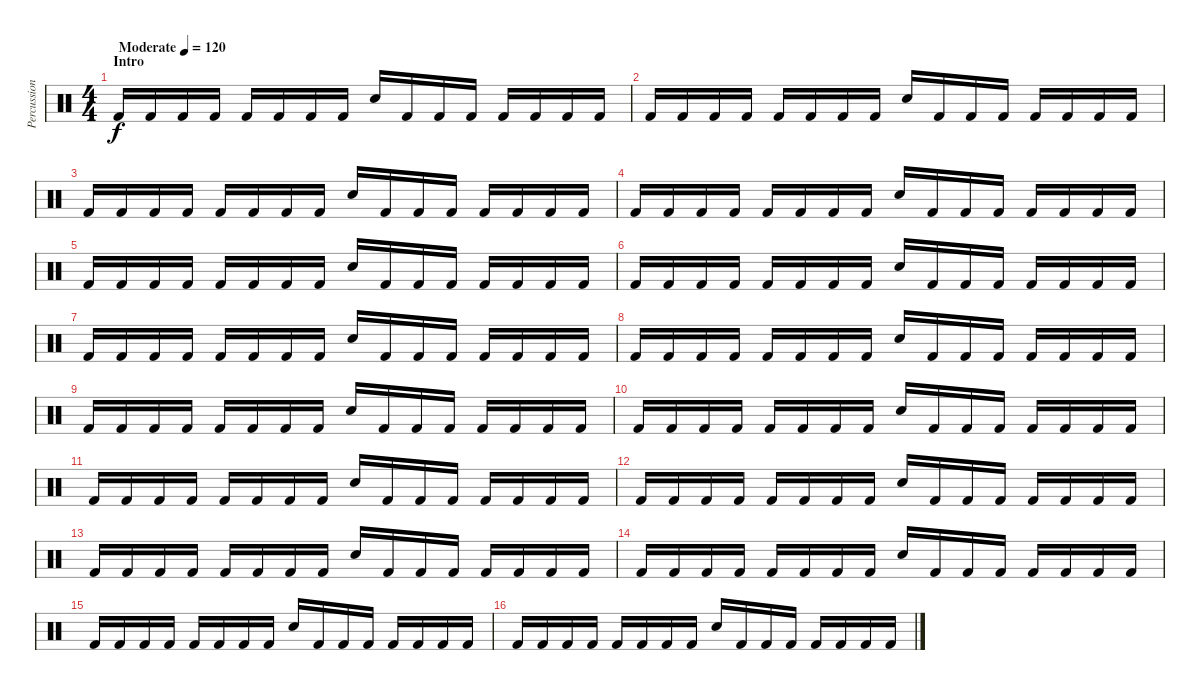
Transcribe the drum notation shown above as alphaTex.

\track ("Percussion" "Percussion") {instrument percussion}
\staff {score}
\articulation defaults
\ts (4 4)
\section ("" "Intro")
\tempo (120 "Moderate")
\clef neutral
\ks c "Kick (hit) 2".16{dy f} "Kick (hit) 2".16 "Kick (hit) 2".16 "Kick (hit) 2".16 "Kick (hit) 2".16 "Kick (hit) 2".16 "Kick (hit) 2".16 "Kick (hit) 2".16 "Snare (hit) 2".16 "Kick (hit) 2".16 "Kick (hit) 2".16 "Kick (hit) 2".16 "Kick (hit) 2".16 "Kick (hit) 2".16 "Kick (hit) 2".16 "Kick (hit) 2".16
|
"Kick (hit) 2".16 "Kick (hit) 2".16 "Kick (hit) 2".16 "Kick (hit) 2".16 "Kick (hit) 2".16 "Kick (hit) 2".16 "Kick (hit) 2".16 "Kick (hit) 2".16 "Snare (hit) 2".16 "Kick (hit) 2".16 "Kick (hit) 2".16 "Kick (hit) 2".16 "Kick (hit) 2".16 "Kick (hit) 2".16 "Kick (hit) 2".16 "Kick (hit) 2".16 |
"Kick (hit) 2".16 "Kick (hit) 2".16 "Kick (hit) 2".16 "Kick (hit) 2".16 "Kick (hit) 2".16 "Kick (hit) 2".16 "Kick (hit) 2".16 "Kick (hit) 2".16 "Snare (hit) 2".16 "Kick (hit) 2".16 "Kick (hit) 2".16 "Kick (hit) 2".16 "Kick (hit) 2".16 "Kick (hit) 2".16 "Kick (hit) 2".16 "Kick (hit) 2".16 |
"Kick (hit) 2".16 "Kick (hit) 2".16 "Kick (hit) 2".16 "Kick (hit) 2".16 "Kick (hit) 2".16 "Kick (hit) 2".16 "Kick (hit) 2".16 "Kick (hit) 2".16 "Snare (hit) 2".16 "Kick (hit) 2".16 "Kick (hit) 2".16 "Kick (hit) 2".16 "Kick (hit) 2".16 "Kick (hit) 2".16 "Kick (hit) 2".16 "Kick (hit) 2".16 |
"Kick (hit) 2".16 "Kick (hit) 2".16 "Kick (hit) 2".16 "Kick (hit) 2".16 "Kick (hit) 2".16 "Kick (hit) 2".16 "Kick (hit) 2".16 "Kick (hit) 2".16 "Snare (hit) 2".16 "Kick (hit) 2".16 "Kick (hit) 2".16 "Kick (hit) 2".16 "Kick (hit) 2".16 "Kick (hit) 2".16 "Kick (hit) 2".16 "Kick (hit) 2".16 |
"Kick (hit) 2".16 "Kick (hit) 2".16 "Kick (hit) 2".16 "Kick (hit) 2".16 "Kick (hit) 2".16 "Kick (hit) 2".16 "Kick (hit) 2".16 "Kick (hit) 2".16 "Snare (hit) 2".16 "Kick (hit) 2".16 "Kick (hit) 2".16 "Kick (hit) 2".16 "Kick (hit) 2".16 "Kick (hit) 2".16 "Kick (hit) 2".16 "Kick (hit) 2".16 |
"Kick (hit) 2".16 "Kick (hit) 2".16 "Kick (hit) 2".16 "Kick (hit) 2".16 "Kick (hit) 2".16 "Kick (hit) 2".16 "Kick (hit) 2".16 "Kick (hit) 2".16 "Snare (hit) 2".16 "Kick (hit) 2".16 "Kick (hit) 2".16 "Kick (hit) 2".16 "Kick (hit) 2".16 "Kick (hit) 2".16 "Kick (hit) 2".16 "Kick (hit) 2".16 |
"Kick (hit) 2".16 "Kick (hit) 2".16 "Kick (hit) 2".16 "Kick (hit) 2".16 "Kick (hit) 2".16 "Kick (hit) 2".16 "Kick (hit) 2".16 "Kick (hit) 2".16 "Snare (hit) 2".16 "Kick (hit) 2".16 "Kick (hit) 2".16 "Kick (hit) 2".16 "Kick (hit) 2".16 "Kick (hit) 2".16 "Kick (hit) 2".16 "Kick (hit) 2".16 |
"Kick (hit) 2".16 "Kick (hit) 2".16 "Kick (hit) 2".16 "Kick (hit) 2".16 "Kick (hit) 2".16 "Kick (hit) 2".16 "Kick (hit) 2".16 "Kick (hit) 2".16 "Snare (hit) 2".16 "Kick (hit) 2".16 "Kick (hit) 2".16 "Kick (hit) 2".16 "Kick (hit) 2".16 "Kick (hit) 2".16 "Kick (hit) 2".16 "Kick (hit) 2".16 |
"Kick (hit) 2".16 "Kick (hit) 2".16 "Kick (hit) 2".16 "Kick (hit) 2".16 "Kick (hit) 2".16 "Kick (hit) 2".16 "Kick (hit) 2".16 "Kick (hit) 2".16 "Snare (hit) 2".16 "Kick (hit) 2".16 "Kick (hit) 2".16 "Kick (hit) 2".16 "Kick (hit) 2".16 "Kick (hit) 2".16 "Kick (hit) 2".16 "Kick (hit) 2".16 |
"Kick (hit) 2".16 "Kick (hit) 2".16 "Kick (hit) 2".16 "Kick (hit) 2".16 "Kick (hit) 2".16 "Kick (hit) 2".16 "Kick (hit) 2".16 "Kick (hit) 2".16 "Snare (hit) 2".16 "Kick (hit) 2".16 "Kick (hit) 2".16 "Kick (hit) 2".16 "Kick (hit) 2".16 "Kick (hit) 2".16 "Kick (hit) 2".16 "Kick (hit) 2".16 |
"Kick (hit) 2".16 "Kick (hit) 2".16 "Kick (hit) 2".16 "Kick (hit) 2".16 "Kick (hit) 2".16 "Kick (hit) 2".16 "Kick (hit) 2".16 "Kick (hit) 2".16 "Snare (hit) 2".16 "Kick (hit) 2".16 "Kick (hit) 2".16 "Kick (hit) 2".16 "Kick (hit) 2".16 "Kick (hit) 2".16 "Kick (hit) 2".16 "Kick (hit) 2".16 |
"Kick (hit) 2".16 "Kick (hit) 2".16 "Kick (hit) 2".16 "Kick (hit) 2".16 "Kick (hit) 2".16 "Kick (hit) 2".16 "Kick (hit) 2".16 "Kick (hit) 2".16 "Snare (hit) 2".16 "Kick (hit) 2".16 "Kick (hit) 2".16 "Kick (hit) 2".16 "Kick (hit) 2".16 "Kick (hit) 2".16 "Kick (hit) 2".16 "Kick (hit) 2".16 |
"Kick (hit) 2".16 "Kick (hit) 2".16 "Kick (hit) 2".16 "Kick (hit) 2".16 "Kick (hit) 2".16 "Kick (hit) 2".16 "Kick (hit) 2".16 "Kick (hit) 2".16 "Snare (hit) 2".16 "Kick (hit) 2".16 "Kick (hit) 2".16 "Kick (hit) 2".16 "Kick (hit) 2".16 "Kick (hit) 2".16 "Kick (hit) 2".16 "Kick (hit) 2".16 |
"Kick (hit) 2".16 "Kick (hit) 2".16 "Kick (hit) 2".16 "Kick (hit) 2".16 "Kick (hit) 2".16 "Kick (hit) 2".16 "Kick (hit) 2".16 "Kick (hit) 2".16 "Snare (hit) 2".16 "Kick (hit) 2".16 "Kick (hit) 2".16 "Kick (hit) 2".16 "Kick (hit) 2".16 "Kick (hit) 2".16 "Kick (hit) 2".16 "Kick (hit) 2".16 |
"Kick (hit) 2".16 "Kick (hit) 2".16 "Kick (hit) 2".16 "Kick (hit) 2".16 "Kick (hit) 2".16 "Kick (hit) 2".16 "Kick (hit) 2".16 "Kick (hit) 2".16 "Snare (hit) 2".16 "Kick (hit) 2".16 "Kick (hit) 2".16 "Kick (hit) 2".16 "Kick (hit) 2".16 "Kick (hit) 2".16 "Kick (hit) 2".16 "Kick (hit) 2".16
